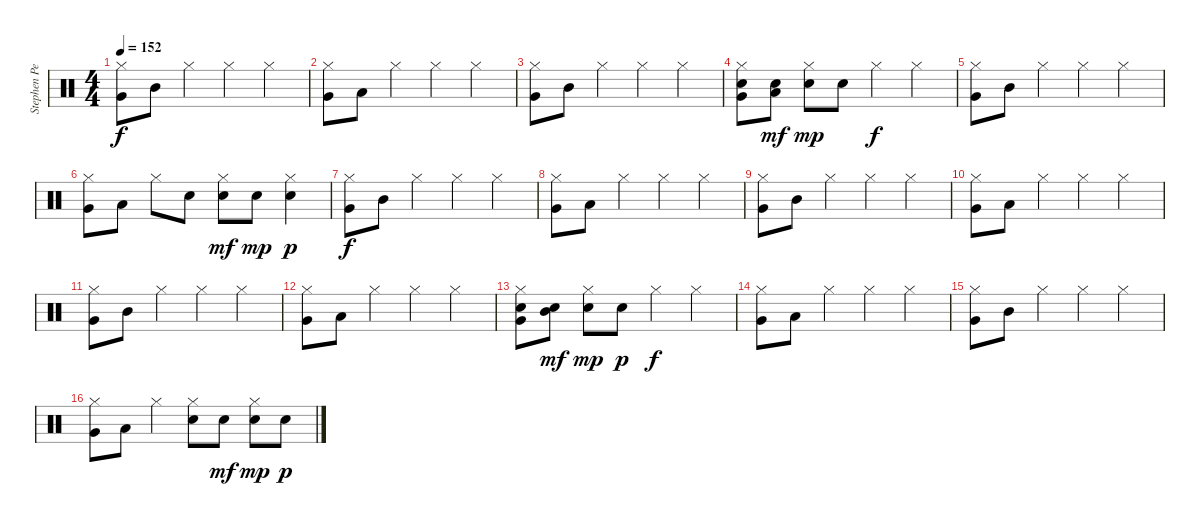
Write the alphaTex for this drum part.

\track ("Stephen Perkins (Drums)" "Stephen Pe") {instrument percussion}
\staff {score}
\articulation defaults
\ts (4 4)
\tempo 152
\clef neutral
\ks c
("Hi-Hat (closed)" "Very Low Tom (hit)").8{dy f} "Mid Tom (hit)".8 "Hi-Hat (closed)".4 "Hi-Hat (closed)".4 "Hi-Hat (closed)".4 |
("Hi-Hat (closed)" "Very Low Tom (hit)").8 "Low Tom (hit)".8 "Hi-Hat (closed)".4 "Hi-Hat (closed)".4 "Hi-Hat (closed)".4 |
("Hi-Hat (closed)" "Very Low Tom (hit)").8 "Mid Tom (hit)".8 "Hi-Hat (closed)".4 "Hi-Hat (closed)".4 "Hi-Hat (closed)".4 |
("Hi-Hat (closed)" "Electric Snare (hit)" "Very Low Tom (hit)").8 ("Electric Snare (hit)" "Low Tom (hit)").8{dy mf} ("Hi-Hat (closed)" "Electric Snare (hit)").8{dy mp} "Electric Snare (hit)".8 "Hi-Hat (closed)".4{dy f} "Hi-Hat (closed)".4 |
("Hi-Hat (closed)" "Very Low Tom (hit)").8 "Mid Tom (hit)".8 "Hi-Hat (closed)".4 "Hi-Hat (closed)".4 "Hi-Hat (closed)".4 |
("Hi-Hat (closed)" "Very Low Tom (hit)").8 "Low Tom (hit)".8 "Hi-Hat (closed)".8 "Electric Snare (hit)".8 ("Hi-Hat (closed)" "Electric Snare (hit)").8{dy mf} "Electric Snare (hit)".8{dy mp} ("Hi-Hat (closed)" "Electric Snare (hit)").4{dy p} |
("Hi-Hat (closed)" "Very Low Tom (hit)").8{dy f} "Mid Tom (hit)".8 "Hi-Hat (closed)".4 "Hi-Hat (closed)".4 "Hi-Hat (closed)".4 |
("Hi-Hat (closed)" "Very Low Tom (hit)").8 "Low Tom (hit)".8 "Hi-Hat (closed)".4 "Hi-Hat (closed)".4 "Hi-Hat (closed)".4 |
("Hi-Hat (closed)" "Very Low Tom (hit)").8 "Mid Tom (hit)".8 "Hi-Hat (closed)".4 "Hi-Hat (closed)".4 "Hi-Hat (closed)".4 |
("Hi-Hat (closed)" "Very Low Tom (hit)").8 "Low Tom (hit)".8 "Hi-Hat (closed)".4 "Hi-Hat (closed)".4 "Hi-Hat (closed)".4 |
("Hi-Hat (closed)" "Very Low Tom (hit)").8 "Mid Tom (hit)".8 "Hi-Hat (closed)".4 "Hi-Hat (closed)".4 "Hi-Hat (closed)".4 |
("Hi-Hat (closed)" "Very Low Tom (hit)").8 "Low Tom (hit)".8 "Hi-Hat (closed)".4 "Hi-Hat (closed)".4 "Hi-Hat (closed)".4 |
("Hi-Hat (closed)" "Electric Snare (hit)" "Very Low Tom (hit)").8 ("Electric Snare (hit)" "Mid Tom (hit)").8{dy mf} ("Hi-Hat (closed)" "Electric Snare (hit)").8{dy mp} "Electric Snare (hit)".8{dy p} "Hi-Hat (closed)".4{dy f} "Hi-Hat (closed)".4 |
("Hi-Hat (closed)" "Very Low Tom (hit)").8 "Low Tom (hit)".8 "Hi-Hat (closed)".4 "Hi-Hat (closed)".4 "Hi-Hat (closed)".4 |
("Hi-Hat (closed)" "Very Low Tom (hit)").8 "Mid Tom (hit)".8 "Hi-Hat (closed)".4 "Hi-Hat (closed)".4 "Hi-Hat (closed)".4 |
("Hi-Hat (closed)" "Very Low Tom (hit)").8 "Low Tom (hit)".8 "Hi-Hat (closed)".4 ("Hi-Hat (closed)" "Electric Snare (hit)").8 "Electric Snare (hit)".8{dy mf} ("Hi-Hat (closed)" "Electric Snare (hit)").8{dy mp} "Electric Snare (hit)".8{dy p}
